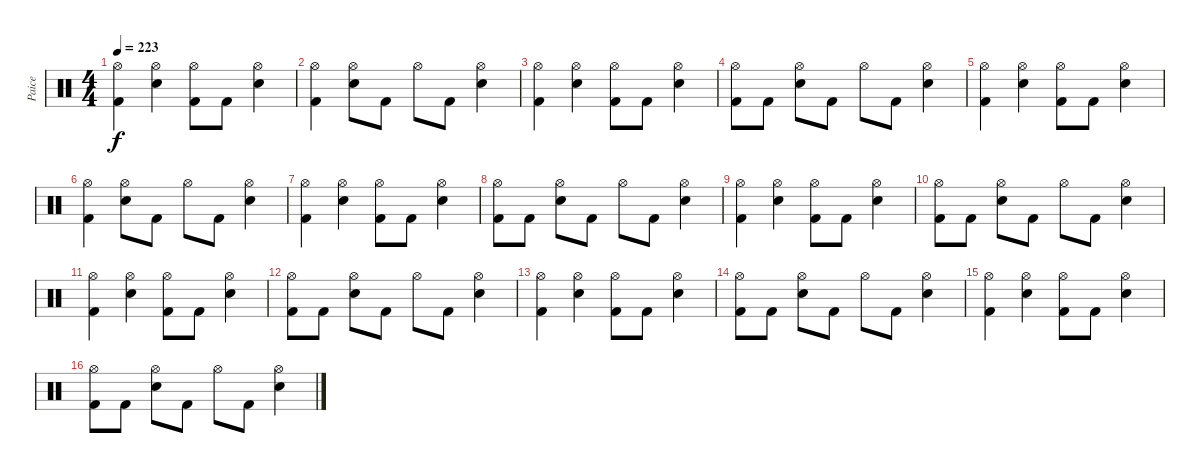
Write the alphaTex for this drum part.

\track ("Paice" "Paice") {instrument percussion}
\staff {score}
\articulation defaults
\ts (4 4)
\tempo 223
\clef neutral
\ks c
("Hi-Hat (open)" "Kick (hit) 2").4{dy f} ("Hi-Hat (open)" "Electric Snare (hit)").4 ("Hi-Hat (open)" "Kick (hit) 2").8 "Kick (hit) 2".8 ("Hi-Hat (open)" "Electric Snare (hit)").4 |
("Hi-Hat (open)" "Kick (hit) 2").4 ("Hi-Hat (open)" "Electric Snare (hit)").8 "Kick (hit) 2".8 "Hi-Hat (open)".8 "Kick (hit) 2".8 ("Hi-Hat (open)" "Electric Snare (hit)").4 |
("Hi-Hat (open)" "Kick (hit) 2").4 ("Hi-Hat (open)" "Electric Snare (hit)").4 ("Hi-Hat (open)" "Kick (hit) 2").8 "Kick (hit) 2".8 ("Hi-Hat (open)" "Electric Snare (hit)").4 |
("Hi-Hat (open)" "Kick (hit) 2").8 "Kick (hit) 2".8 ("Hi-Hat (open)" "Electric Snare (hit)").8 "Kick (hit) 2".8 "Hi-Hat (open)".8 "Kick (hit) 2".8 ("Hi-Hat (open)" "Electric Snare (hit)").4 |
("Hi-Hat (open)" "Kick (hit) 2").4 ("Hi-Hat (open)" "Electric Snare (hit)").4 ("Hi-Hat (open)" "Kick (hit) 2").8 "Kick (hit) 2".8 ("Hi-Hat (open)" "Electric Snare (hit)").4 |
("Hi-Hat (open)" "Kick (hit) 2").4 ("Hi-Hat (open)" "Electric Snare (hit)").8 "Kick (hit) 2".8 "Hi-Hat (open)".8 "Kick (hit) 2".8 ("Hi-Hat (open)" "Electric Snare (hit)").4 |
("Hi-Hat (open)" "Kick (hit) 2").4 ("Hi-Hat (open)" "Electric Snare (hit)").4 ("Hi-Hat (open)" "Kick (hit) 2").8 "Kick (hit) 2".8 ("Hi-Hat (open)" "Electric Snare (hit)").4 |
("Hi-Hat (open)" "Kick (hit) 2").8 "Kick (hit) 2".8 ("Hi-Hat (open)" "Electric Snare (hit)").8 "Kick (hit) 2".8 "Hi-Hat (open)".8 "Kick (hit) 2".8 ("Hi-Hat (open)" "Electric Snare (hit)").4 |
("Hi-Hat (open)" "Kick (hit) 2").4 ("Hi-Hat (open)" "Electric Snare (hit)").4 ("Hi-Hat (open)" "Kick (hit) 2").8 "Kick (hit) 2".8 ("Hi-Hat (open)" "Electric Snare (hit)").4 |
("Hi-Hat (open)" "Kick (hit) 2").8 "Kick (hit) 2".8 ("Hi-Hat (open)" "Electric Snare (hit)").8 "Kick (hit) 2".8 "Hi-Hat (open)".8 "Kick (hit) 2".8 ("Hi-Hat (open)" "Electric Snare (hit)").4 |
("Hi-Hat (open)" "Kick (hit) 2").4 ("Hi-Hat (open)" "Electric Snare (hit)").4 ("Hi-Hat (open)" "Kick (hit) 2").8 "Kick (hit) 2".8 ("Hi-Hat (open)" "Electric Snare (hit)").4 |
("Hi-Hat (open)" "Kick (hit) 2").8 "Kick (hit) 2".8 ("Hi-Hat (open)" "Electric Snare (hit)").8 "Kick (hit) 2".8 "Hi-Hat (open)".8 "Kick (hit) 2".8 ("Hi-Hat (open)" "Electric Snare (hit)").4 |
("Hi-Hat (open)" "Kick (hit) 2").4 ("Hi-Hat (open)" "Electric Snare (hit)").4 ("Hi-Hat (open)" "Kick (hit) 2").8 "Kick (hit) 2".8 ("Hi-Hat (open)" "Electric Snare (hit)").4 |
("Hi-Hat (open)" "Kick (hit) 2").8 "Kick (hit) 2".8 ("Hi-Hat (open)" "Electric Snare (hit)").8 "Kick (hit) 2".8 "Hi-Hat (open)".8 "Kick (hit) 2".8 ("Hi-Hat (open)" "Electric Snare (hit)").4 |
("Hi-Hat (open)" "Kick (hit) 2").4 ("Hi-Hat (open)" "Electric Snare (hit)").4 ("Hi-Hat (open)" "Kick (hit) 2").8 "Kick (hit) 2".8 ("Hi-Hat (open)" "Electric Snare (hit)").4 |
("Hi-Hat (open)" "Kick (hit) 2").8 "Kick (hit) 2".8 ("Hi-Hat (open)" "Electric Snare (hit)").8 "Kick (hit) 2".8 "Hi-Hat (open)".8 "Kick (hit) 2".8 ("Hi-Hat (open)" "Electric Snare (hit)").4
